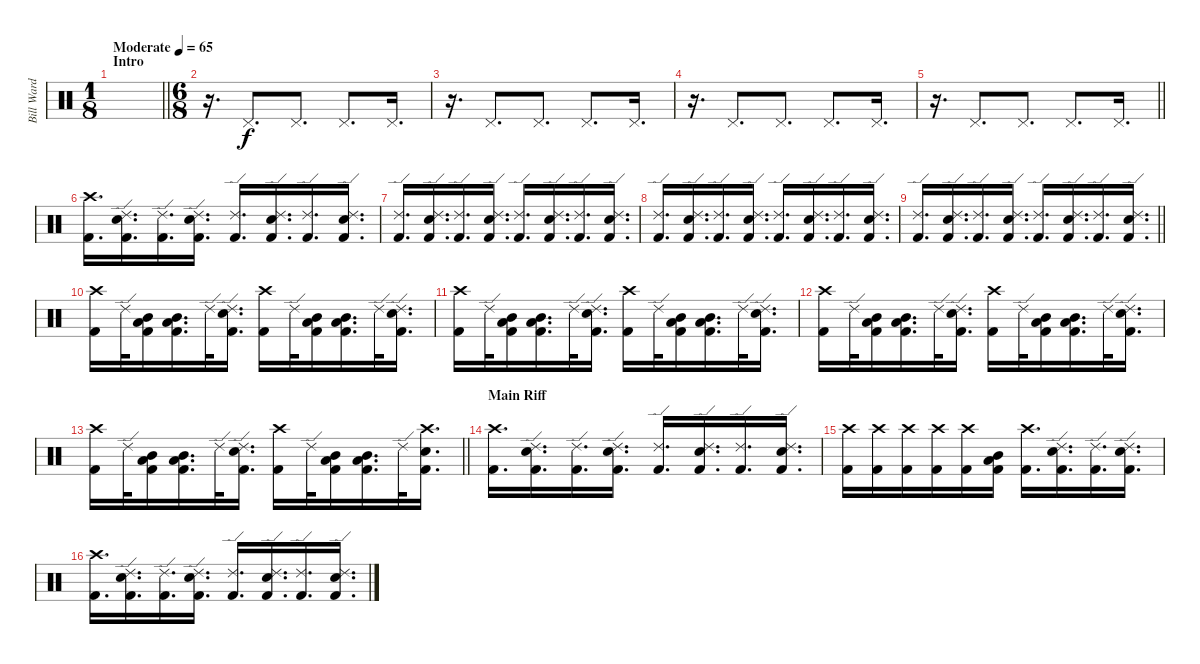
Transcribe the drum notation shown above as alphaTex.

\track ("Bill Ward (Drums)" "Bill Ward ") {instrument percussion}
\staff {score}
\articulation defaults
\ts (1 8)
\section ("" "Intro")
\tempo (65 "Moderate")
\clef neutral
\barLineRight lightlight
\ks c
|
\ts (6 8)
r.16{d} "Pedal Hi-Hat (hit)".8{d} "Pedal Hi-Hat (hit)".8{d} "Pedal Hi-Hat (hit)".8{d} "Pedal Hi-Hat (hit)".16{d} |
r.16{d} "Pedal Hi-Hat (hit)".8{d} "Pedal Hi-Hat (hit)".8{d} "Pedal Hi-Hat (hit)".8{d} "Pedal Hi-Hat (hit)".16{d} |
r.16{d} "Pedal Hi-Hat (hit)".8{d} "Pedal Hi-Hat (hit)".8{d} "Pedal Hi-Hat (hit)".8{d} "Pedal Hi-Hat (hit)".16{d} |
\barLineRight lightlight
r.16{d} "Pedal Hi-Hat (hit)".8{d} "Pedal Hi-Hat (hit)".8{d} "Pedal Hi-Hat (hit)".8{d} "Pedal Hi-Hat (hit)".16{d} |
("Kick (hit) 2" "Crash high (hit)").16{d} ("Kick (hit) 2" "Snare (hit) 2" "Ride (edge) 2").16{d} ("Kick (hit) 2" "Ride (edge) 2").16{d} ("Kick (hit) 2" "Snare (hit) 2" "Ride (edge) 2").16{d} ("Kick (hit) 2" "Ride (edge) 2").16{d} ("Kick (hit) 2" "Snare (hit) 2" "Ride (edge) 2").16{d} ("Kick (hit) 2" "Ride (edge) 2").16{d} ("Kick (hit) 2" "Snare (hit) 2" "Ride (edge) 2").16{d} |
("Kick (hit) 2" "Ride (edge) 2").16{d} ("Kick (hit) 2" "Snare (hit) 2" "Ride (edge) 2").16{d} ("Kick (hit) 2" "Ride (edge) 2").16{d} ("Kick (hit) 2" "Snare (hit) 2" "Ride (edge) 2").16{d} ("Kick (hit) 2" "Ride (edge) 2").16{d} ("Kick (hit) 2" "Snare (hit) 2" "Ride (edge) 2").16{d} ("Kick (hit) 2" "Ride (edge) 2").16{d} ("Kick (hit) 2" "Snare (hit) 2" "Ride (edge) 2").16{d} |
("Kick (hit) 2" "Ride (edge) 2").16{d} ("Kick (hit) 2" "Snare (hit) 2" "Ride (edge) 2").16{d} ("Kick (hit) 2" "Ride (edge) 2").16{d} ("Kick (hit) 2" "Snare (hit) 2" "Ride (edge) 2").16{d} ("Kick (hit) 2" "Ride (edge) 2").16{d} ("Kick (hit) 2" "Snare (hit) 2" "Ride (edge) 2").16{d} ("Kick (hit) 2" "Ride (edge) 2").16{d} ("Kick (hit) 2" "Snare (hit) 2" "Ride (edge) 2").16{d} |
\barLineRight lightlight
("Kick (hit) 2" "Ride (edge) 2").16{d} ("Kick (hit) 2" "Snare (hit) 2" "Ride (edge) 2").16{d} ("Kick (hit) 2" "Ride (edge) 2").16{d} ("Kick (hit) 2" "Snare (hit) 2" "Ride (edge) 2").16{d} ("Kick (hit) 2" "Ride (edge) 2").16{d} ("Kick (hit) 2" "Snare (hit) 2" "Ride (edge) 2").16{d} ("Kick (hit) 2" "Ride (edge) 2").16{d} ("Kick (hit) 2" "Snare (hit) 2" "Ride (edge) 2").16{d} |
("Kick (hit) 2" "Crash high (hit)").16 "Ride (edge) 2".32 ("Kick (hit) 2" "Mid Tom (hit)" "Low Floor Tom (hit)").16 ("Kick (hit) 2" "Mid Tom (hit)" "Low Floor Tom (hit)").16{d} "Ride (edge) 2".32 ("Kick (hit) 2" "Snare (hit) 2" "Ride (edge) 2").16{d} ("Kick (hit) 2" "Crash high (hit)").16 "Ride (edge) 2".32 ("Kick (hit) 2" "Mid Tom (hit)" "Low Floor Tom (hit)").16 ("Kick (hit) 2" "Mid Tom (hit)" "Low Floor Tom (hit)").16{d} "Ride (edge) 2".32 ("Kick (hit) 2" "Snare (hit) 2" "Ride (edge) 2").16{d} |
("Kick (hit) 2" "Crash high (hit)").16 "Ride (edge) 2".32 ("Kick (hit) 2" "Mid Tom (hit)" "Low Floor Tom (hit)").16 ("Kick (hit) 2" "Mid Tom (hit)" "Low Floor Tom (hit)").16{d} "Ride (edge) 2".32 ("Kick (hit) 2" "Snare (hit) 2" "Ride (edge) 2").16{d} ("Kick (hit) 2" "Crash high (hit)").16 "Ride (edge) 2".32 ("Kick (hit) 2" "Mid Tom (hit)" "Low Floor Tom (hit)").16 ("Kick (hit) 2" "Mid Tom (hit)" "Low Floor Tom (hit)").16{d} "Ride (edge) 2".32 ("Kick (hit) 2" "Snare (hit) 2" "Ride (edge) 2").16{d} |
("Kick (hit) 2" "Crash high (hit)").16 "Ride (edge) 2".32 ("Kick (hit) 2" "Mid Tom (hit)" "Low Floor Tom (hit)").16 ("Kick (hit) 2" "Mid Tom (hit)" "Low Floor Tom (hit)").16{d} "Ride (edge) 2".32 ("Kick (hit) 2" "Snare (hit) 2" "Ride (edge) 2").16{d} ("Kick (hit) 2" "Crash high (hit)").16 "Ride (edge) 2".32 ("Kick (hit) 2" "Mid Tom (hit)" "Low Floor Tom (hit)").16 ("Kick (hit) 2" "Mid Tom (hit)" "Low Floor Tom (hit)").16{d} "Ride (edge) 2".32 ("Kick (hit) 2" "Snare (hit) 2" "Ride (edge) 2").16{d} |
\barLineRight lightlight
("Kick (hit) 2" "Crash high (hit)").16 "Ride (edge) 2".32 ("Kick (hit) 2" "Mid Tom (hit)" "Low Floor Tom (hit)").16 ("Kick (hit) 2" "Mid Tom (hit)" "Low Floor Tom (hit)").16{d} "Ride (edge) 2".32 ("Kick (hit) 2" "Snare (hit) 2" "Ride (edge) 2").16{d} ("Kick (hit) 2" "Crash high (hit)").16 "Ride (edge) 2".32 ("Kick (hit) 2" "Mid Tom (hit)" "Low Floor Tom (hit)").16 ("Kick (hit) 2" "Mid Tom (hit)" "Low Floor Tom (hit)").16{d} "Ride (edge) 2".32 ("Kick (hit) 2" "Snare (hit) 2" "Crash high (hit)").16{d} |
\section ("" "Main Riff")
("Kick (hit) 2" "Crash high (hit)").16{d} ("Kick (hit) 2" "Snare (hit) 2" "Ride (edge) 2").16{d} ("Kick (hit) 2" "Ride (edge) 2").16{d} ("Kick (hit) 2" "Snare (hit) 2" "Ride (edge) 2").16{d} ("Kick (hit) 2" "Ride (edge) 2").16{d} ("Kick (hit) 2" "Snare (hit) 2" "Ride (edge) 2").16{d} ("Kick (hit) 2" "Ride (edge) 2").16{d} ("Kick (hit) 2" "Snare (hit) 2" "Ride (edge) 2").16{d} |
("Kick (hit) 2" "Crash high (hit)").16 ("Kick (hit) 2" "Crash high (hit)").16 ("Kick (hit) 2" "Crash high (hit)").16 ("Kick (hit) 2" "Crash high (hit)").16 ("Kick (hit) 2" "Crash high (hit)").16 ("Kick (hit) 2" "Mid Tom (hit)" "Low Floor Tom (hit)").16 ("Kick (hit) 2" "Crash high (hit)").16{d} ("Kick (hit) 2" "Snare (hit) 2" "Ride (edge) 2").16{d} ("Kick (hit) 2" "Ride (edge) 2").16{d} ("Kick (hit) 2" "Snare (hit) 2" "Ride (edge) 2").16{d} |
("Kick (hit) 2" "Crash high (hit)").16{d} ("Kick (hit) 2" "Snare (hit) 2" "Ride (edge) 2").16{d} ("Kick (hit) 2" "Ride (edge) 2").16{d} ("Kick (hit) 2" "Snare (hit) 2" "Ride (edge) 2").16{d} ("Kick (hit) 2" "Ride (edge) 2").16{d} ("Kick (hit) 2" "Snare (hit) 2" "Ride (edge) 2").16{d} ("Kick (hit) 2" "Ride (edge) 2").16{d} ("Kick (hit) 2" "Snare (hit) 2" "Ride (edge) 2").16{d}
